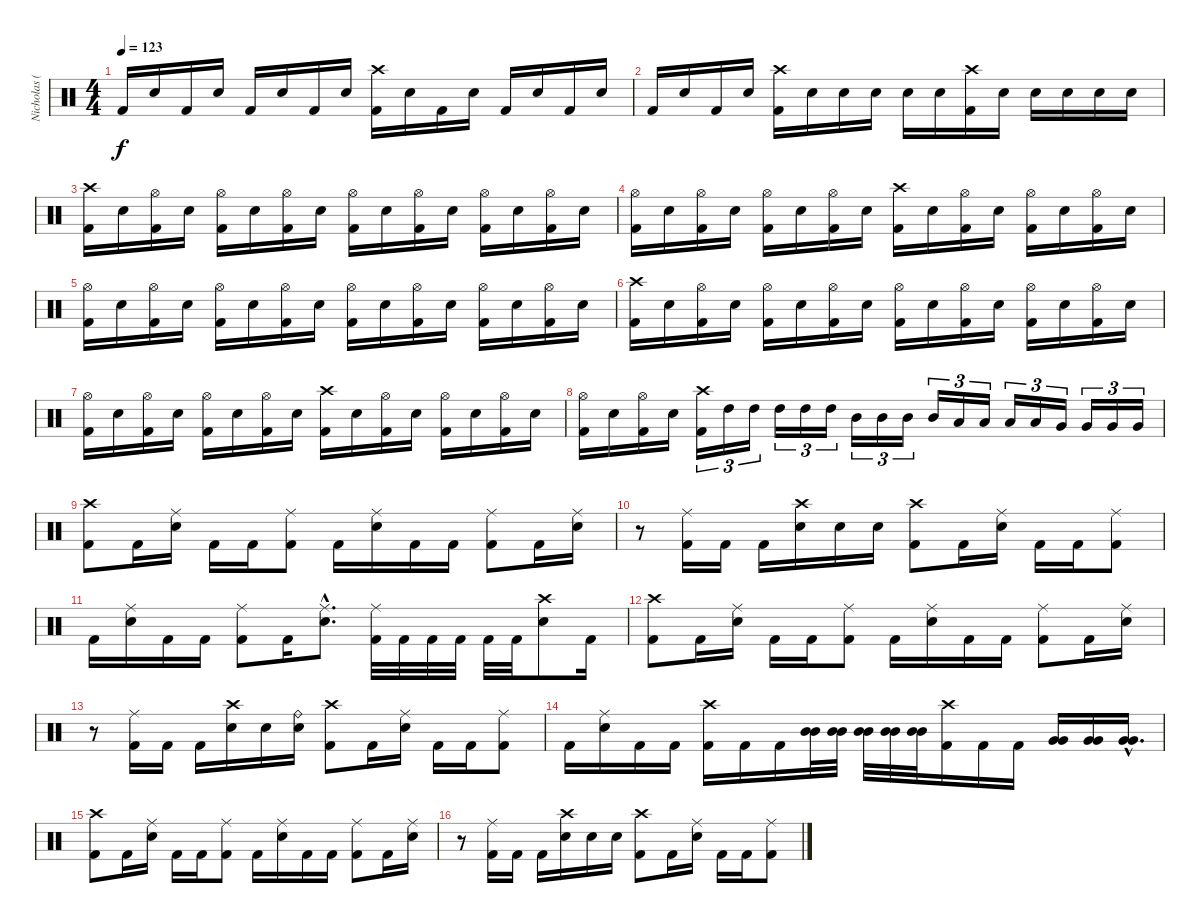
\track ("Nicholas (Drums)" "Nicholas (") {instrument percussion}
\staff {score}
\articulation defaults
\ts (4 4)
\tempo 123
\clef neutral
\ks c "Kick (hit) 2".16{dy f} "Electric Snare (hit)".16 "Kick (hit) 2".16 "Electric Snare (hit)".16 "Kick (hit) 2".16 "Electric Snare (hit)".16 "Kick (hit) 2".16 "Electric Snare (hit)".16
("Crash high (hit)" "Kick (hit) 2").16 "Electric Snare (hit)".16 "Kick (hit) 2".16 "Electric Snare (hit)".16 "Kick (hit) 2".16 "Electric Snare (hit)".16 "Kick (hit) 2".16 "Electric Snare (hit)".16 |
"Kick (hit) 2".16 "Electric Snare (hit)".16 "Kick (hit) 2".16 "Electric Snare (hit)".16 ("Crash high (hit)" "Kick (hit) 2").16 "Electric Snare (hit)".16 "Electric Snare (hit)".16 "Electric Snare (hit)".16 "Electric Snare (hit)".16 "Electric Snare (hit)".16 ("Crash high (hit)" "Kick (hit) 2").16 "Electric Snare (hit)".16 "Electric Snare (hit)".16 "Electric Snare (hit)".16 "Electric Snare (hit)".16 "Electric Snare (hit)".16 |
("Crash high (hit)" "Kick (hit) 2").16 "Electric Snare (hit)".16 ("Hi-Hat (open)" "Kick (hit) 2").16 "Electric Snare (hit)".16 ("Hi-Hat (open)" "Kick (hit) 2").16 "Electric Snare (hit)".16 ("Hi-Hat (open)" "Kick (hit) 2").16 "Electric Snare (hit)".16 ("Hi-Hat (open)" "Kick (hit) 2").16 "Electric Snare (hit)".16 ("Hi-Hat (open)" "Kick (hit) 2").16 "Electric Snare (hit)".16 ("Hi-Hat (open)" "Kick (hit) 2").16 "Electric Snare (hit)".16 ("Hi-Hat (open)" "Kick (hit) 2").16 "Electric Snare (hit)".16 |
("Hi-Hat (open)" "Kick (hit) 2").16 "Electric Snare (hit)".16 ("Hi-Hat (open)" "Kick (hit) 2").16 "Electric Snare (hit)".16 ("Hi-Hat (open)" "Kick (hit) 2").16 "Electric Snare (hit)".16 ("Hi-Hat (open)" "Kick (hit) 2").16 "Electric Snare (hit)".16 ("Crash high (hit)" "Kick (hit) 2").16 "Electric Snare (hit)".16 ("Hi-Hat (open)" "Kick (hit) 2").16 "Electric Snare (hit)".16 ("Hi-Hat (open)" "Kick (hit) 2").16 "Electric Snare (hit)".16 ("Hi-Hat (open)" "Kick (hit) 2").16 "Electric Snare (hit)".16 |
("Hi-Hat (open)" "Kick (hit) 2").16 "Electric Snare (hit)".16 ("Hi-Hat (open)" "Kick (hit) 2").16 "Electric Snare (hit)".16 ("Hi-Hat (open)" "Kick (hit) 2").16 "Electric Snare (hit)".16 ("Hi-Hat (open)" "Kick (hit) 2").16 "Electric Snare (hit)".16 ("Hi-Hat (open)" "Kick (hit) 2").16 "Electric Snare (hit)".16 ("Hi-Hat (open)" "Kick (hit) 2").16 "Electric Snare (hit)".16 ("Hi-Hat (open)" "Kick (hit) 2").16 "Electric Snare (hit)".16 ("Hi-Hat (open)" "Kick (hit) 2").16 "Electric Snare (hit)".16 |
("Crash high (hit)" "Kick (hit) 2").16 "Electric Snare (hit)".16 ("Hi-Hat (open)" "Kick (hit) 2").16 "Electric Snare (hit)".16 ("Hi-Hat (open)" "Kick (hit) 2").16 "Electric Snare (hit)".16 ("Hi-Hat (open)" "Kick (hit) 2").16 "Electric Snare (hit)".16 ("Hi-Hat (open)" "Kick (hit) 2").16 "Electric Snare (hit)".16 ("Hi-Hat (open)" "Kick (hit) 2").16 "Electric Snare (hit)".16 ("Hi-Hat (open)" "Kick (hit) 2").16 "Electric Snare (hit)".16 ("Hi-Hat (open)" "Kick (hit) 2").16 "Electric Snare (hit)".16 |
("Hi-Hat (open)" "Kick (hit) 2").16 "Electric Snare (hit)".16 ("Hi-Hat (open)" "Kick (hit) 2").16 "Electric Snare (hit)".16 ("Hi-Hat (open)" "Kick (hit) 2").16 "Electric Snare (hit)".16 ("Hi-Hat (open)" "Kick (hit) 2").16 "Electric Snare (hit)".16 ("Crash high (hit)" "Kick (hit) 2").16 "Electric Snare (hit)".16 ("Hi-Hat (open)" "Kick (hit) 2").16 "Electric Snare (hit)".16 ("Hi-Hat (open)" "Kick (hit) 2").16 "Electric Snare (hit)".16 ("Hi-Hat (open)" "Kick (hit) 2").16 "Electric Snare (hit)".16 |
("Hi-Hat (open)" "Kick (hit) 2").16 "Electric Snare (hit)".16 ("Hi-Hat (open)" "Kick (hit) 2").16 "Electric Snare (hit)".16 ("Crash high (hit)" "Kick (hit) 2").16{tu (3 2)} "High Tom (hit)".16{tu (3 2) balance 13} "High Tom (hit)".16{tu (3 2)} "High Tom (hit)".16{tu (3 2)} "High Tom (hit)".16{tu (3 2)} "High Tom (hit)".16{tu (3 2)} "Mid Tom (hit)".16{tu (3 2) balance 10} "Mid Tom (hit)".16{tu (3 2)} "Mid Tom (hit)".16{tu (3 2)} "Mid Tom (hit)".16{tu (3 2)} "Low Tom (hit)".16{tu (3 2) balance 6} "Low Tom (hit)".16{tu (3 2)} "Low Tom (hit)".16{tu (3 2)} "Low Tom (hit)".16{tu (3 2)} "Very Low Tom (hit)".16{tu (3 2) balance 3} "Very Low Tom (hit)".16{tu (3 2)} "Very Low Tom (hit)".16{tu (3 2)} "Very Low Tom (hit)".16{tu (3 2)} |
("Crash high (hit)" "Kick (hit) 2").8{balance 8} "Kick (hit) 2".16 ("Ride (middle)" "Electric Snare (hit)").16 "Kick (hit) 2".16 "Kick (hit) 2".16 ("Ride (middle)" "Kick (hit) 2").8 "Kick (hit) 2".16 ("Ride (middle)" "Electric Snare (hit)").16 "Kick (hit) 2".16 "Kick (hit) 2".16 ("Ride (middle)" "Kick (hit) 2").8 "Kick (hit) 2".16 ("Ride (middle)" "Electric Snare (hit)").16 |
r.8 ("Ride (middle)" "Kick (hit) 2").16 "Kick (hit) 2".16 "Kick (hit) 2".16 ("Crash high (hit)" "Electric Snare (hit)").16 "Electric Snare (hit)".16 "Electric Snare (hit)".16 ("Crash high (hit)" "Kick (hit) 2").8 "Kick (hit) 2".16 ("Ride (middle)" "Electric Snare (hit)").16 "Kick (hit) 2".16 "Kick (hit) 2".16 ("Ride (middle)" "Kick (hit) 2").8 |
"Kick (hit) 2".16 ("Ride (middle)" "Electric Snare (hit)").16 "Kick (hit) 2".16 "Kick (hit) 2".16 ("Ride (middle)" "Kick (hit) 2").8 "Kick (hit) 2".16 ("Ride (middle)"{hac} "Electric Snare (hit)"{hac}).8{d} ("Ride (middle)" "Kick (hit) 2").32 "Kick (hit) 2".32 "Kick (hit) 2".32 "Kick (hit) 2".32 "Kick (hit) 2".32 "Kick (hit) 2".32 ("Crash high (hit)" "Electric Snare (hit)").8 "Kick (hit) 2".16 |
("Crash high (hit)" "Kick (hit) 2").8 "Kick (hit) 2".16 ("Ride (middle)" "Electric Snare (hit)").16 "Kick (hit) 2".16 "Kick (hit) 2".16 ("Ride (middle)" "Kick (hit) 2").8 "Kick (hit) 2".16 ("Ride (middle)" "Electric Snare (hit)").16 "Kick (hit) 2".16 "Kick (hit) 2".16 ("Ride (middle)" "Kick (hit) 2").8 "Kick (hit) 2".16 ("Ride (middle)" "Electric Snare (hit)").16 |
r.8 ("Ride (middle)" "Kick (hit) 2").16 "Kick (hit) 2".16 "Kick (hit) 2".16 ("Crash high (hit)" "Electric Snare (hit)").16 "Electric Snare (hit)".16 ("Ride (bell)" "Electric Snare (hit)").16 ("Crash high (hit)" "Kick (hit) 2").8 "Kick (hit) 2".16 ("Ride (middle)" "Electric Snare (hit)").16 "Kick (hit) 2".16 "Kick (hit) 2".16 ("Ride (middle)" "Kick (hit) 2").8 |
"Kick (hit) 2".16 ("Ride (middle)" "Electric Snare (hit)").16 "Kick (hit) 2".16 "Kick (hit) 2".16 ("Crash high (hit)" "Kick (hit) 2").16 "Kick (hit) 2".16 "Kick (hit) 2".16 ("Mid Tom (hit)" "Mid Tom (hit)").32{balance 11} ("Mid Tom (hit)" "Mid Tom (hit)").32 ("Mid Tom (hit)" "Mid Tom (hit)").32 ("Mid Tom (hit)" "Mid Tom (hit)").32 ("Mid Tom (hit)" "Mid Tom (hit)").32 ("Crash high (hit)" "Kick (hit) 2").16{balance 8} "Kick (hit) 2".16 "Kick (hit) 2".16 ("Very Low Tom (hit)" "Very Low Tom (hit)").16{balance 6} ("Very Low Tom (hit)" "Very Low Tom (hit)").16 ("Very Low Tom (hit)"{hac} "Very Low Tom (hit)"{hac}).16{d} |
("Crash high (hit)" "Kick (hit) 2").8{balance 8} "Kick (hit) 2".16 ("Ride (middle)" "Electric Snare (hit)").16 "Kick (hit) 2".16 "Kick (hit) 2".16 ("Ride (middle)" "Kick (hit) 2").8 "Kick (hit) 2".16 ("Ride (middle)" "Electric Snare (hit)").16 "Kick (hit) 2".16 "Kick (hit) 2".16 ("Ride (middle)" "Kick (hit) 2").8 "Kick (hit) 2".16 ("Ride (middle)" "Electric Snare (hit)").16 |
r.8 ("Ride (middle)" "Kick (hit) 2").16 "Kick (hit) 2".16 "Kick (hit) 2".16 ("Crash high (hit)" "Electric Snare (hit)").16 "Electric Snare (hit)".16 "Electric Snare (hit)".16 ("Crash high (hit)" "Kick (hit) 2").8 "Kick (hit) 2".16 ("Ride (middle)" "Electric Snare (hit)").16 "Kick (hit) 2".16 "Kick (hit) 2".16 ("Ride (middle)" "Kick (hit) 2").8
